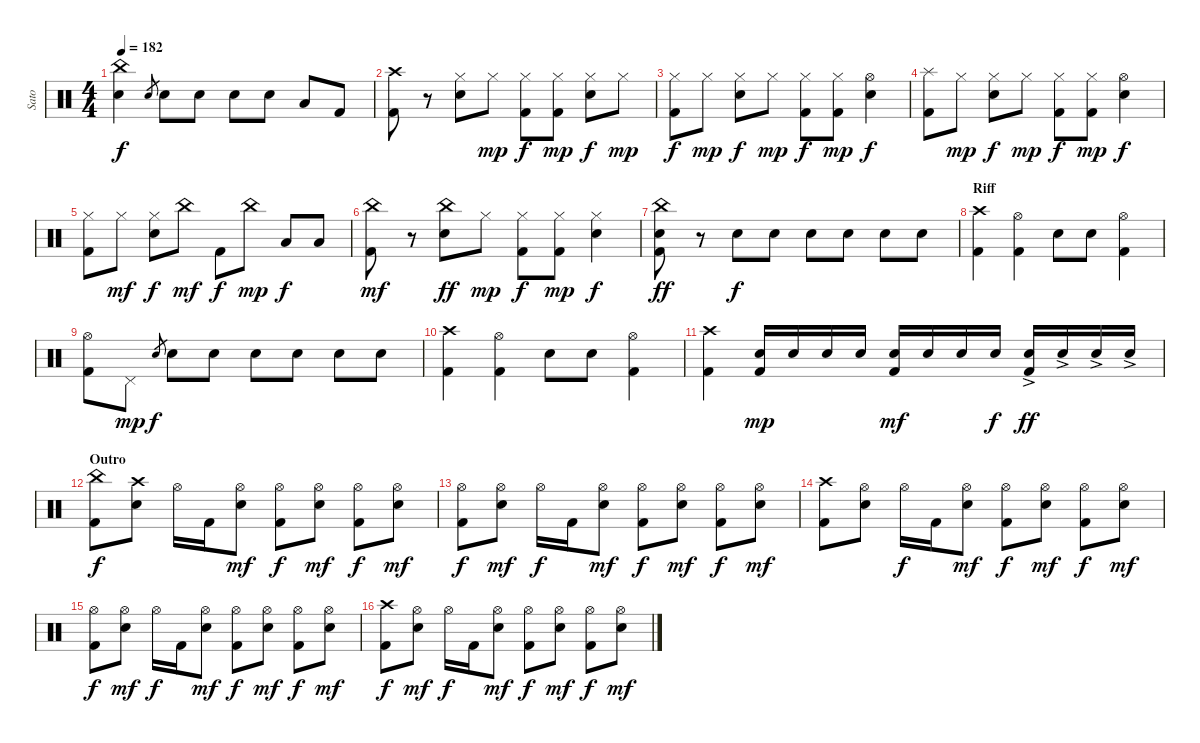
\track ("Sato" "Sato") {instrument percussion}
\staff {score}
\articulation defaults
\ts (4 4)
\tempo 182
\clef neutral
\ks c
("China (hit)" "Electric Snare (hit)").4{dy f} "Electric Snare (hit)".8{gr} "Electric Snare (hit)".8 "Electric Snare (hit)".8 "Electric Snare (hit)".8 "Electric Snare (hit)".8 "Low Floor Tom (hit)".8 "Kick (hit) 2".8 |
("Crash high (hit)" "Kick (hit) 2").8 r.8 ("Hi-Hat (closed)" "Electric Snare (hit)").8 "Hi-Hat (closed)".8{dy mp} ("Hi-Hat (closed)" "Kick (hit) 2").8{dy f} ("Hi-Hat (closed)" "Kick (hit) 2").8{dy mp} ("Hi-Hat (closed)" "Electric Snare (hit)").8{dy f} "Hi-Hat (closed)".8{dy mp} |
("Hi-Hat (closed)" "Kick (hit) 2").8{dy f} "Hi-Hat (closed)".8{dy mp} ("Hi-Hat (closed)" "Electric Snare (hit)").8{dy f} "Hi-Hat (closed)".8{dy mp} ("Hi-Hat (closed)" "Kick (hit) 2").8{dy f} ("Hi-Hat (closed)" "Kick (hit) 2").8{dy mp} ("Hi-Hat (open)" "Electric Snare (hit)").4{dy f} |
("Splash (hit)" "Kick (hit) 2").8 "Hi-Hat (closed)".8{dy mp} ("Hi-Hat (closed)" "Electric Snare (hit)").8{dy f} "Hi-Hat (closed)".8{dy mp} ("Hi-Hat (closed)" "Kick (hit) 2").8{dy f} ("Hi-Hat (closed)" "Kick (hit) 2").8{dy mp} ("Hi-Hat (open)" "Electric Snare (hit)").4{dy f} |
("Hi-Hat (closed)" "Kick (hit) 2").8 "Hi-Hat (closed)".8{dy mf} ("Hi-Hat (closed)" "Electric Snare (hit)").8{dy f} "China (hit)".8{dy mf} "Kick (hit) 2".8{dy f} "China (hit)".8{dy mp} "Low Floor Tom (hit)".8{dy f} "Low Floor Tom (hit)".8 |
("China (hit)" "Kick (hit) 2").8{dy mf} r.8 ("China (hit)" "Electric Snare (hit)").8{dy ff} "Hi-Hat (closed)".8{dy mp} ("Hi-Hat (closed)" "Kick (hit) 2").8{dy f} ("Hi-Hat (closed)" "Kick (hit) 2").8{dy mp} ("Hi-Hat (closed)" "Electric Snare (hit)").4{dy f} |
("China (hit)" "Electric Snare (hit)" "Kick (hit) 2").8{dy ff} r.8 "Electric Snare (hit)".8{dy f} "Electric Snare (hit)".8 "Electric Snare (hit)".8 "Electric Snare (hit)".8 "Electric Snare (hit)".8 "Electric Snare (hit)".8 |
\section ("" "Riff")
("Crash high (hit)" "Kick (hit) 2").4 ("Hi-Hat (open)" "Kick (hit) 2").4 "Electric Snare (hit)".8 "Electric Snare (hit)".8 ("Hi-Hat (open)" "Kick (hit) 2").4 |
("Hi-Hat (open)" "Kick (hit) 2").8 "Pedal Hi-Hat (hit)".8{dy mp} "Electric Snare (hit)".8{gr dy f} "Electric Snare (hit)".8 "Electric Snare (hit)".8 "Electric Snare (hit)".8 "Electric Snare (hit)".8 "Electric Snare (hit)".8 "Electric Snare (hit)".8 |
("Crash high (hit)" "Kick (hit) 2").4 ("Hi-Hat (open)" "Kick (hit) 2").4 "Electric Snare (hit)".8 "Electric Snare (hit)".8 ("Hi-Hat (open)" "Kick (hit) 2").4 |
("Crash high (hit)" "Kick (hit) 2").4 ("Electric Snare (hit)" "Kick (hit) 2").16{dy mp} "Electric Snare (hit)".16 "Electric Snare (hit)".16 "Electric Snare (hit)".16 ("Electric Snare (hit)" "Kick (hit) 2").16{dy mf} "Electric Snare (hit)".16 "Electric Snare (hit)".16 "Electric Snare (hit)".16{dy f} ("Electric Snare (hit)"{ac} "Kick (hit) 2").16{dy ff} "Electric Snare (hit)"{ac}.16 "Electric Snare (hit)"{ac}.16 "Electric Snare (hit)"{ac}.16 |
\section ("" "Outro")
("China (hit)" "Kick (hit) 2").8{dy f} ("Crash high (hit)" "Electric Snare (hit)").8 "Hi-Hat (open)".16 "Kick (hit) 2".16 ("Hi-Hat (open)" "Electric Snare (hit)").8{dy mf} ("Hi-Hat (open)" "Kick (hit) 2").8{dy f} ("Hi-Hat (open)" "Electric Snare (hit)").8{dy mf} ("Hi-Hat (open)" "Kick (hit) 2").8{dy f} ("Hi-Hat (open)" "Electric Snare (hit)").8{dy mf} |
("Hi-Hat (open)" "Kick (hit) 2").8{dy f} ("Hi-Hat (open)" "Electric Snare (hit)").8{dy mf} "Hi-Hat (open)".16{dy f} "Kick (hit) 2".16 ("Hi-Hat (open)" "Electric Snare (hit)").8{dy mf} ("Hi-Hat (open)" "Kick (hit) 2").8{dy f} ("Hi-Hat (open)" "Electric Snare (hit)").8{dy mf} ("Hi-Hat (open)" "Kick (hit) 2").8{dy f} ("Hi-Hat (open)" "Electric Snare (hit)").8{dy mf} |
("Crash high (hit)" "Kick (hit) 2").8 ("Hi-Hat (open)" "Electric Snare (hit)").8 "Hi-Hat (open)".16{dy f} "Kick (hit) 2".16 ("Hi-Hat (open)" "Electric Snare (hit)").8{dy mf} ("Hi-Hat (open)" "Kick (hit) 2").8{dy f} ("Hi-Hat (open)" "Electric Snare (hit)").8{dy mf} ("Hi-Hat (open)" "Kick (hit) 2").8{dy f} ("Hi-Hat (open)" "Electric Snare (hit)").8{dy mf} |
("Hi-Hat (open)" "Kick (hit) 2").8{dy f} ("Hi-Hat (open)" "Electric Snare (hit)").8{dy mf} "Hi-Hat (open)".16{dy f} "Kick (hit) 2".16 ("Hi-Hat (open)" "Electric Snare (hit)").8{dy mf} ("Hi-Hat (open)" "Kick (hit) 2").8{dy f} ("Hi-Hat (open)" "Electric Snare (hit)").8{dy mf} ("Hi-Hat (open)" "Kick (hit) 2").8{dy f} ("Hi-Hat (open)" "Electric Snare (hit)").8{dy mf} |
("Crash high (hit)" "Kick (hit) 2").8{dy f} ("Hi-Hat (open)" "Electric Snare (hit)").8{dy mf} "Hi-Hat (open)".16{dy f} "Kick (hit) 2".16 ("Hi-Hat (open)" "Electric Snare (hit)").8{dy mf} ("Hi-Hat (open)" "Kick (hit) 2").8{dy f} ("Hi-Hat (open)" "Electric Snare (hit)").8{dy mf} ("Hi-Hat (open)" "Kick (hit) 2").8{dy f} ("Hi-Hat (open)" "Electric Snare (hit)").8{dy mf}
